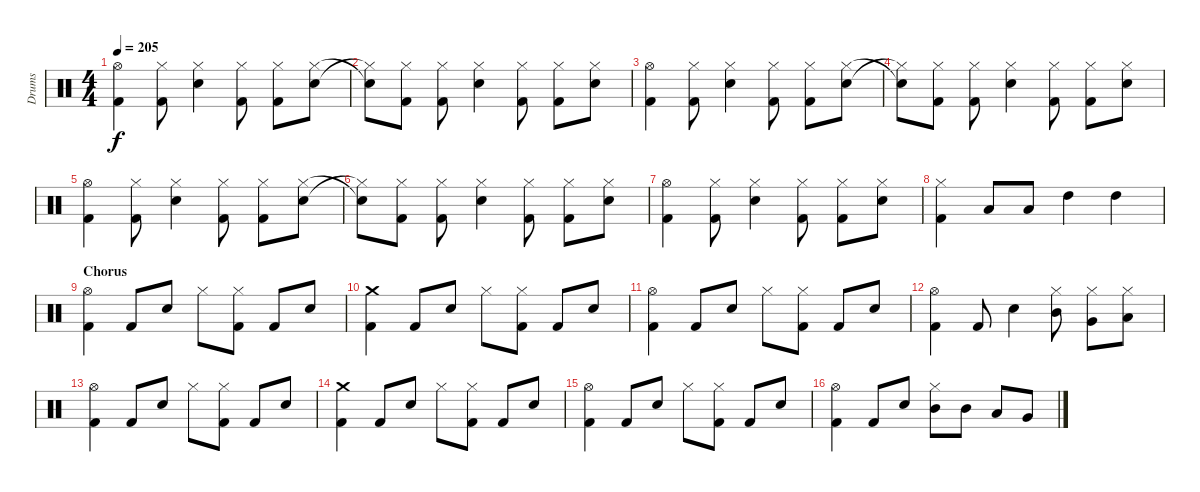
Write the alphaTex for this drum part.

\track ("Drums" "Drums") {instrument percussion}
\staff {score}
\articulation defaults
\ts (4 4)
\tempo 205
\clef neutral
\ks c
("Hi-Hat (open)" "Kick (hit) 2").4{dy f} ("Hi-Hat (closed)" "Kick (hit) 2").8 ("Hi-Hat (closed)" "Electric Snare (hit)").4 ("Hi-Hat (closed)" "Kick (hit) 2").8 ("Hi-Hat (closed)" "Kick (hit) 2").8 ("Hi-Hat (closed)" "Electric Snare (hit)").8 |
("Snare (hit)"{t} "Hi-Hat (closed)"{t}).8 ("Hi-Hat (closed)" "Kick (hit) 2").8 ("Hi-Hat (closed)" "Kick (hit) 2").8 ("Hi-Hat (closed)" "Electric Snare (hit)").4 ("Hi-Hat (closed)" "Kick (hit) 2").8 ("Hi-Hat (closed)" "Kick (hit) 2").8 ("Hi-Hat (closed)" "Electric Snare (hit)").8 |
("Hi-Hat (open)" "Kick (hit) 2").4 ("Hi-Hat (closed)" "Kick (hit) 2").8 ("Hi-Hat (closed)" "Electric Snare (hit)").4 ("Hi-Hat (closed)" "Kick (hit) 2").8 ("Hi-Hat (closed)" "Kick (hit) 2").8 ("Hi-Hat (closed)" "Electric Snare (hit)").8 |
("Snare (hit)"{t} "Hi-Hat (closed)"{t}).8 ("Hi-Hat (closed)" "Kick (hit) 2").8 ("Hi-Hat (closed)" "Kick (hit) 2").8 ("Hi-Hat (closed)" "Electric Snare (hit)").4 ("Hi-Hat (closed)" "Kick (hit) 2").8 ("Hi-Hat (closed)" "Kick (hit) 2").8 ("Hi-Hat (closed)" "Electric Snare (hit)").8 |
("Hi-Hat (open)" "Kick (hit) 2").4 ("Hi-Hat (closed)" "Kick (hit) 2").8 ("Hi-Hat (closed)" "Electric Snare (hit)").4 ("Hi-Hat (closed)" "Kick (hit) 2").8 ("Hi-Hat (closed)" "Kick (hit) 2").8 ("Hi-Hat (closed)" "Electric Snare (hit)").8 |
("Snare (hit)"{t} "Hi-Hat (closed)"{t}).8 ("Hi-Hat (closed)" "Kick (hit) 2").8 ("Hi-Hat (closed)" "Kick (hit) 2").8 ("Hi-Hat (closed)" "Electric Snare (hit)").4 ("Hi-Hat (closed)" "Kick (hit) 2").8 ("Hi-Hat (closed)" "Kick (hit) 2").8 ("Hi-Hat (closed)" "Electric Snare (hit)").8 |
("Hi-Hat (open)" "Kick (hit) 2").4 ("Hi-Hat (closed)" "Kick (hit) 2").8 ("Hi-Hat (closed)" "Electric Snare (hit)").4 ("Hi-Hat (closed)" "Kick (hit) 2").8 ("Hi-Hat (closed)" "Kick (hit) 2").8 ("Hi-Hat (closed)" "Electric Snare (hit)").8 |
("Hi-Hat (closed)" "Kick (hit) 2").4 "Low Tom (hit)".8 "Low Tom (hit)".8 "High Tom (hit)".4 "High Tom (hit)".4 |
\section ("" "Chorus")
("Hi-Hat (open)" "Kick (hit) 2").4 "Kick (hit) 2".8 "Electric Snare (hit)".8 "Hi-Hat (closed)".8 ("Hi-Hat (closed)" "Kick (hit) 2").8 "Kick (hit) 2".8 "Electric Snare (hit)".8 |
("Crash medium (hit)" "Kick (hit) 2").4 "Kick (hit) 2".8 "Electric Snare (hit)".8 "Hi-Hat (closed)".8 ("Hi-Hat (closed)" "Kick (hit) 2").8 "Kick (hit) 2".8 "Electric Snare (hit)".8 |
("Hi-Hat (open)" "Kick (hit) 2").4 "Kick (hit) 2".8 "Electric Snare (hit)".8 "Hi-Hat (closed)".8 ("Hi-Hat (closed)" "Kick (hit) 2").8 "Kick (hit) 2".8 "Electric Snare (hit)".8 |
("Hi-Hat (open)" "Kick (hit) 2").4 "Kick (hit) 2".8 "Electric Snare (hit)".4 ("Hi-Hat (closed)" "Mid Tom (hit)").8 ("Hi-Hat (closed)" "Very Low Tom (hit)").8 ("Hi-Hat (closed)" "Low Tom (hit)").8 |
("Hi-Hat (open)" "Kick (hit) 2").4 "Kick (hit) 2".8 "Electric Snare (hit)".8 "Hi-Hat (closed)".8 ("Hi-Hat (closed)" "Kick (hit) 2").8 "Kick (hit) 2".8 "Electric Snare (hit)".8 |
("Crash medium (hit)" "Kick (hit) 2").4 "Kick (hit) 2".8 "Electric Snare (hit)".8 "Hi-Hat (closed)".8 ("Hi-Hat (closed)" "Kick (hit) 2").8 "Kick (hit) 2".8 "Electric Snare (hit)".8 |
("Hi-Hat (open)" "Kick (hit) 2").4 "Kick (hit) 2".8 "Electric Snare (hit)".8 "Hi-Hat (closed)".8 ("Hi-Hat (closed)" "Kick (hit) 2").8 "Kick (hit) 2".8 "Electric Snare (hit)".8 |
("Hi-Hat (open)" "Kick (hit) 2").4 "Kick (hit) 2".8 "Electric Snare (hit)".8 ("Hi-Hat (closed)" "Mid Tom (hit)").8 "Mid Tom (hit)".8 "Low Tom (hit)".8 "Very Low Tom (hit)".8
